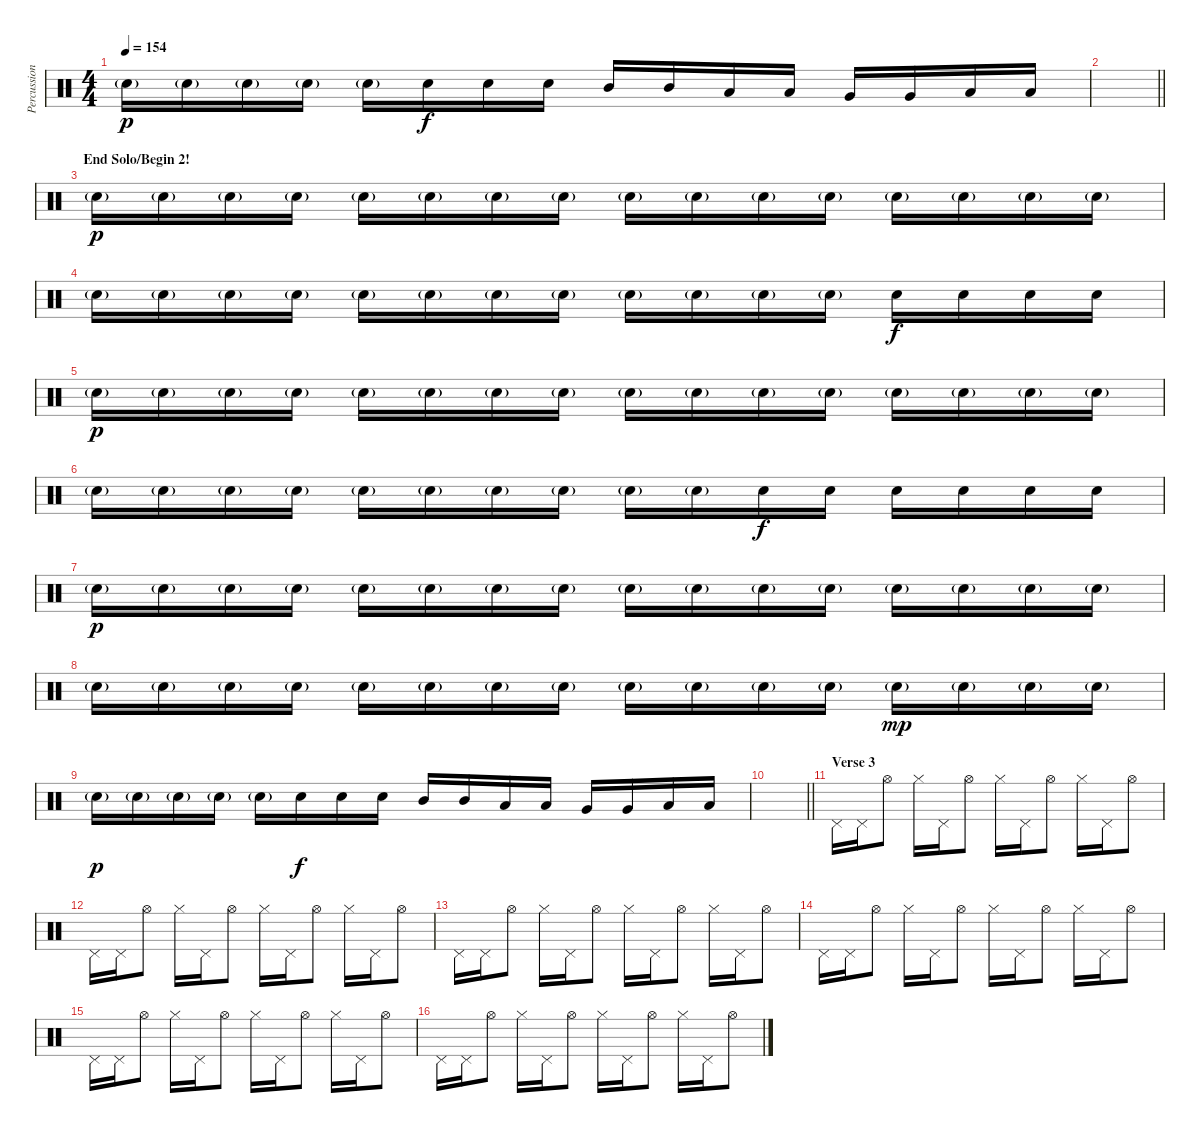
\track ("Percussion" "Percussion") {instrument percussion}
\staff {score}
\articulation defaults
\ts (4 4)
\tempo 154
\clef neutral
\ks c "Snare (hit) 2"{g}.16{dy p} "Snare (hit) 2"{g}.16 "Snare (hit) 2"{g}.16 "Snare (hit) 2"{g}.16 "Snare (hit) 2"{g}.16 "Snare (hit) 2".16{dy f} "Snare (hit) 2".16 "Snare (hit) 2".16 "Mid Tom (hit)".16 "Mid Tom (hit)".16 "Low Tom (hit)".16 "Low Tom (hit)".16 "Very Low Tom (hit)".16 "Very Low Tom (hit)".16 "Low Floor Tom (hit)".16 "Low Floor Tom (hit)".16
|
\barLineRight lightlight
|
\section ("" "End Solo/Begin 2!")
"Snare (hit) 2"{g}.16{dy p} "Snare (hit) 2"{g}.16 "Snare (hit) 2"{g}.16 "Snare (hit) 2"{g}.16 "Snare (hit) 2"{g}.16 "Snare (hit) 2"{g}.16 "Snare (hit) 2"{g}.16 "Snare (hit) 2"{g}.16 "Snare (hit) 2"{g}.16 "Snare (hit) 2"{g}.16 "Snare (hit) 2"{g}.16 "Snare (hit) 2"{g}.16 "Snare (hit) 2"{g}.16 "Snare (hit) 2"{g}.16 "Snare (hit) 2"{g}.16 "Snare (hit) 2"{g}.16 |
"Snare (hit) 2"{g}.16 "Snare (hit) 2"{g}.16 "Snare (hit) 2"{g}.16 "Snare (hit) 2"{g}.16 "Snare (hit) 2"{g}.16 "Snare (hit) 2"{g}.16 "Snare (hit) 2"{g}.16 "Snare (hit) 2"{g}.16 "Snare (hit) 2"{g}.16 "Snare (hit) 2"{g}.16 "Snare (hit) 2"{g}.16 "Snare (hit) 2"{g}.16 "Snare (hit) 2".16{dy f} "Snare (hit) 2".16 "Snare (hit) 2".16 "Snare (hit) 2".16 |
"Snare (hit) 2"{g}.16{dy p} "Snare (hit) 2"{g}.16 "Snare (hit) 2"{g}.16 "Snare (hit) 2"{g}.16 "Snare (hit) 2"{g}.16 "Snare (hit) 2"{g}.16 "Snare (hit) 2"{g}.16 "Snare (hit) 2"{g}.16 "Snare (hit) 2"{g}.16 "Snare (hit) 2"{g}.16 "Snare (hit) 2"{g}.16 "Snare (hit) 2"{g}.16 "Snare (hit) 2"{g}.16 "Snare (hit) 2"{g}.16 "Snare (hit) 2"{g}.16 "Snare (hit) 2"{g}.16 |
"Snare (hit) 2"{g}.16 "Snare (hit) 2"{g}.16 "Snare (hit) 2"{g}.16 "Snare (hit) 2"{g}.16 "Snare (hit) 2"{g}.16 "Snare (hit) 2"{g}.16 "Snare (hit) 2"{g}.16 "Snare (hit) 2"{g}.16 "Snare (hit) 2"{g}.16 "Snare (hit) 2"{g}.16 "Snare (hit) 2".16{dy f} "Snare (hit) 2".16 "Snare (hit) 2".16 "Snare (hit) 2".16 "Snare (hit) 2".16 "Snare (hit) 2".16 |
"Snare (hit) 2"{g}.16{dy p} "Snare (hit) 2"{g}.16 "Snare (hit) 2"{g}.16 "Snare (hit) 2"{g}.16 "Snare (hit) 2"{g}.16 "Snare (hit) 2"{g}.16 "Snare (hit) 2"{g}.16 "Snare (hit) 2"{g}.16 "Snare (hit) 2"{g}.16 "Snare (hit) 2"{g}.16 "Snare (hit) 2"{g}.16 "Snare (hit) 2"{g}.16 "Snare (hit) 2"{g}.16 "Snare (hit) 2"{g}.16 "Snare (hit) 2"{g}.16 "Snare (hit) 2"{g}.16 |
"Snare (hit) 2"{g}.16 "Snare (hit) 2"{g}.16 "Snare (hit) 2"{g}.16 "Snare (hit) 2"{g}.16 "Snare (hit) 2"{g}.16 "Snare (hit) 2"{g}.16 "Snare (hit) 2"{g}.16 "Snare (hit) 2"{g}.16 "Snare (hit) 2"{g}.16 "Snare (hit) 2"{g}.16 "Snare (hit) 2"{g}.16 "Snare (hit) 2"{g}.16 "Snare (hit) 2"{g}.16{dy mp} "Snare (hit) 2"{g}.16 "Snare (hit) 2"{g}.16 "Snare (hit) 2"{g}.16 |
"Snare (hit) 2"{g}.16{dy p} "Snare (hit) 2"{g}.16 "Snare (hit) 2"{g}.16 "Snare (hit) 2"{g}.16 "Snare (hit) 2"{g}.16 "Snare (hit) 2".16{dy f} "Snare (hit) 2".16 "Snare (hit) 2".16 "Mid Tom (hit)".16 "Mid Tom (hit)".16 "Low Tom (hit)".16 "Low Tom (hit)".16 "Very Low Tom (hit)".16 "Very Low Tom (hit)".16 "Low Floor Tom (hit)".16 "Low Floor Tom (hit)".16 |
\barLineRight lightlight
|
\section ("" "Verse 3")
"Pedal Hi-Hat (hit)".16 "Pedal Hi-Hat (hit)".16 "Hi-Hat (open)".8 "Hi-Hat (closed)".16 "Pedal Hi-Hat (hit)".16 "Hi-Hat (open)".8 "Hi-Hat (closed)".16 "Pedal Hi-Hat (hit)".16 "Hi-Hat (open)".8 "Hi-Hat (closed)".16 "Pedal Hi-Hat (hit)".16 "Hi-Hat (open)".8 |
"Pedal Hi-Hat (hit)".16 "Pedal Hi-Hat (hit)".16 "Hi-Hat (open)".8 "Hi-Hat (closed)".16 "Pedal Hi-Hat (hit)".16 "Hi-Hat (open)".8 "Hi-Hat (closed)".16 "Pedal Hi-Hat (hit)".16 "Hi-Hat (open)".8 "Hi-Hat (closed)".16 "Pedal Hi-Hat (hit)".16 "Hi-Hat (open)".8 |
"Pedal Hi-Hat (hit)".16 "Pedal Hi-Hat (hit)".16 "Hi-Hat (open)".8 "Hi-Hat (closed)".16 "Pedal Hi-Hat (hit)".16 "Hi-Hat (open)".8 "Hi-Hat (closed)".16 "Pedal Hi-Hat (hit)".16 "Hi-Hat (open)".8 "Hi-Hat (closed)".16 "Pedal Hi-Hat (hit)".16 "Hi-Hat (open)".8 |
"Pedal Hi-Hat (hit)".16 "Pedal Hi-Hat (hit)".16 "Hi-Hat (open)".8 "Hi-Hat (closed)".16 "Pedal Hi-Hat (hit)".16 "Hi-Hat (open)".8 "Hi-Hat (closed)".16 "Pedal Hi-Hat (hit)".16 "Hi-Hat (open)".8 "Hi-Hat (closed)".16 "Pedal Hi-Hat (hit)".16 "Hi-Hat (open)".8 |
"Pedal Hi-Hat (hit)".16 "Pedal Hi-Hat (hit)".16 "Hi-Hat (open)".8 "Hi-Hat (closed)".16 "Pedal Hi-Hat (hit)".16 "Hi-Hat (open)".8 "Hi-Hat (closed)".16 "Pedal Hi-Hat (hit)".16 "Hi-Hat (open)".8 "Hi-Hat (closed)".16 "Pedal Hi-Hat (hit)".16 "Hi-Hat (open)".8 |
"Pedal Hi-Hat (hit)".16 "Pedal Hi-Hat (hit)".16 "Hi-Hat (open)".8 "Hi-Hat (closed)".16 "Pedal Hi-Hat (hit)".16 "Hi-Hat (open)".8 "Hi-Hat (closed)".16 "Pedal Hi-Hat (hit)".16 "Hi-Hat (open)".8 "Hi-Hat (closed)".16 "Pedal Hi-Hat (hit)".16 "Hi-Hat (open)".8
